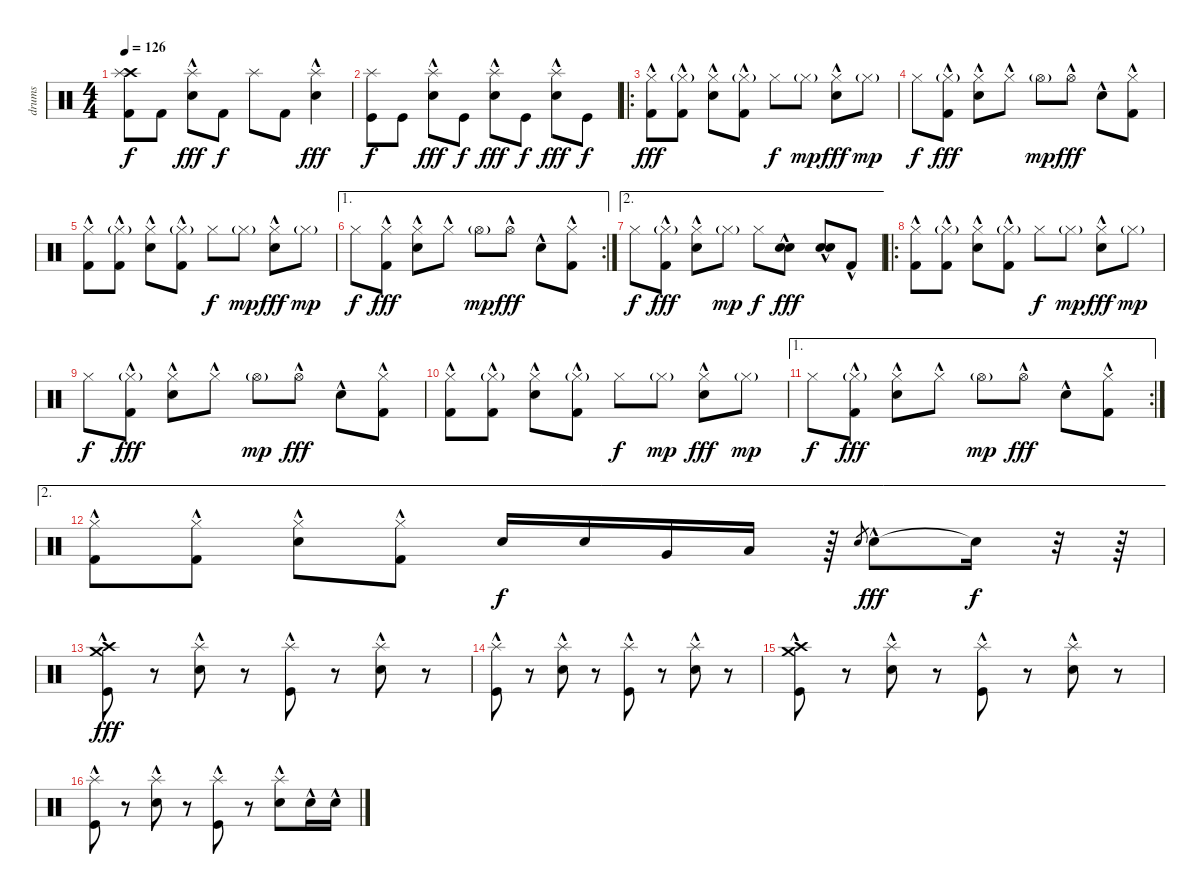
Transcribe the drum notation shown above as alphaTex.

\track ("drums" "drums") {instrument percussion}
\staff {score}
\articulation defaults
\ts (4 4)
\tempo 126
\clef neutral
\ks c
("Crash high (hit)" "Splash (hit)" "Kick (hit) 2").8{dy f} "Kick (hit) 2".8 ("Electric Snare (hit)"{hac} "Splash (hit)").8{dy fff} "Kick (hit) 2".8{dy f} "Splash (hit)".8 "Kick (hit) 2".8 ("Electric Snare (hit)"{hac} "Splash (hit)").4{dy fff} |
("Splash (hit)" "Kick (hit)").8{dy f} "Kick (hit)".8 ("Electric Snare (hit)"{hac} "Splash (hit)").8{dy fff} "Kick (hit)".8{dy f} ("Electric Snare (hit)"{hac} "Splash (hit)").8{dy fff} "Kick (hit)".8{dy f} ("Electric Snare (hit)"{hac} "Splash (hit)").8{dy fff} "Kick (hit)".8{dy f} |
\ro
("Hi-Hat (closed)" "Kick (hit) 2"{hac}).8{dy fff} ("Hi-Hat (closed)"{g} "Kick (hit) 2"{hac}).8 ("Hi-Hat (closed)" "Electric Snare (hit)"{hac}).8 ("Hi-Hat (closed)"{g} "Kick (hit) 2"{hac}).8 "Hi-Hat (closed)".8{dy f} "Hi-Hat (closed)"{g}.8{dy mp} ("Hi-Hat (closed)" "Electric Snare (hit)"{hac}).8{dy fff} "Hi-Hat (closed)"{g}.8{dy mp} |
"Hi-Hat (closed)".8{dy f} ("Hi-Hat (closed)"{g} "Kick (hit) 2"{hac}).8{dy fff} ("Hi-Hat (closed)" "Electric Snare (hit)"{hac}).8 "Hi-Hat (closed)"{hac}.8 "Hi-Hat (open)"{g}.8{dy mp} "Hi-Hat (open)"{hac}.8{dy fff} "Electric Snare (hit)"{hac}.8 ("Hi-Hat (closed)" "Kick (hit) 2"{hac}).8 |
("Hi-Hat (closed)" "Kick (hit) 2"{hac}).8 ("Hi-Hat (closed)"{g} "Kick (hit) 2"{hac}).8 ("Hi-Hat (closed)" "Electric Snare (hit)"{hac}).8 ("Hi-Hat (closed)"{g} "Kick (hit) 2"{hac}).8 "Hi-Hat (closed)".8{dy f} "Hi-Hat (closed)"{g}.8{dy mp} ("Hi-Hat (closed)" "Electric Snare (hit)"{hac}).8{dy fff} "Hi-Hat (closed)"{g}.8{dy mp} |
\ae 1
\rc 2 "Hi-Hat (closed)".8{dy f}
("Hi-Hat (closed)" "Kick (hit) 2"{hac}).8{dy fff} ("Hi-Hat (closed)" "Electric Snare (hit)"{hac}).8 "Hi-Hat (closed)"{hac}.8 "Hi-Hat (open)"{g}.8{dy mp} "Hi-Hat (open)"{hac}.8{dy fff} "Electric Snare (hit)"{hac}.8 ("Hi-Hat (closed)" "Kick (hit) 2"{hac}).8 |
\ae 2 "Hi-Hat (closed)".8{dy f}
("Hi-Hat (closed)"{g} "Kick (hit) 2"{hac}).8{dy fff} ("Hi-Hat (closed)" "Electric Snare (hit)"{hac}).8 "Hi-Hat (closed)"{g}.8{dy mp} "Hi-Hat (closed)".8{dy f} ("Electric Snare (hit)"{hac} "Electric Snare (hit)"{hac}).8{dy fff} ("Electric Snare (hit)"{hac} "Electric Snare (hit)"{hac}).8 "Kick (hit) 2"{hac}.8 |
\ro
("Hi-Hat (closed)" "Kick (hit) 2"{hac}).8 ("Hi-Hat (closed)"{g} "Kick (hit) 2"{hac}).8 ("Hi-Hat (closed)" "Electric Snare (hit)"{hac}).8 ("Hi-Hat (closed)"{g} "Kick (hit) 2"{hac}).8 "Hi-Hat (closed)".8{dy f} "Hi-Hat (closed)"{g}.8{dy mp} ("Hi-Hat (closed)" "Electric Snare (hit)"{hac}).8{dy fff} "Hi-Hat (closed)"{g}.8{dy mp} |
"Hi-Hat (closed)".8{dy f} ("Hi-Hat (closed)"{g} "Kick (hit) 2"{hac}).8{dy fff} ("Hi-Hat (closed)" "Electric Snare (hit)"{hac}).8 "Hi-Hat (closed)"{hac}.8 "Hi-Hat (open)"{g}.8{dy mp} "Hi-Hat (open)"{hac}.8{dy fff} "Electric Snare (hit)"{hac}.8 ("Hi-Hat (closed)" "Kick (hit) 2"{hac}).8 |
("Hi-Hat (closed)" "Kick (hit) 2"{hac}).8 ("Hi-Hat (closed)"{g} "Kick (hit) 2"{hac}).8 ("Hi-Hat (closed)" "Electric Snare (hit)"{hac}).8 ("Hi-Hat (closed)"{g} "Kick (hit) 2"{hac}).8 "Hi-Hat (closed)".8{dy f} "Hi-Hat (closed)"{g}.8{dy mp} ("Hi-Hat (closed)" "Electric Snare (hit)"{hac}).8{dy fff} "Hi-Hat (closed)"{g}.8{dy mp} |
\ae 1
\rc 2 "Hi-Hat (closed)".8{dy f}
("Hi-Hat (closed)"{g} "Kick (hit) 2"{hac}).8{dy fff} ("Hi-Hat (closed)" "Electric Snare (hit)"{hac}).8 "Hi-Hat (closed)"{hac}.8 "Hi-Hat (open)"{g}.8{dy mp} "Hi-Hat (open)"{hac}.8{dy fff} "Electric Snare (hit)"{hac}.8 ("Hi-Hat (closed)" "Kick (hit) 2"{hac}).8 |
\ae 2
("Hi-Hat (closed)" "Kick (hit) 2"{hac}).8 ("Hi-Hat (closed)" "Kick (hit) 2"{hac}).8 ("Hi-Hat (closed)" "Electric Snare (hit)"{hac}).8 ("Hi-Hat (closed)" "Kick (hit) 2"{hac}).8 "Electric Snare (hit)".16{dy f} "Electric Snare (hit)".16 "Very Low Tom (hit)".16 "Low Floor Tom (hit)".16 r.64 "Electric Snare (hit)".8{gr} "Electric Snare (hit)"{hac}.8{dy fff} "Snare (hit)"{t}.16{dy f} r.32 r.64 |
("Crash high (hit)"{hac} "Crash medium (hit)"{hac} "Kick (hit)"{hac}).8{dy fff} r.8 ("Splash (hit)" "Electric Snare (hit)"{hac}).8 r.8 ("Splash (hit)" "Kick (hit)"{hac}).8 r.8 ("Splash (hit)" "Electric Snare (hit)"{hac}).8 r.8 |
("Splash (hit)" "Kick (hit)"{hac}).8 r.8 ("Splash (hit)" "Electric Snare (hit)"{hac}).8 r.8 ("Splash (hit)" "Kick (hit)"{hac}).8 r.8 ("Splash (hit)" "Electric Snare (hit)"{hac}).8 r.8 |
("Crash high (hit)"{hac} "Crash medium (hit)"{hac} "Kick (hit)"{hac}).8 r.8 ("Splash (hit)" "Electric Snare (hit)"{hac}).8 r.8 ("Splash (hit)" "Kick (hit)"{hac}).8 r.8 ("Splash (hit)" "Electric Snare (hit)"{hac}).8 r.8 |
("Splash (hit)" "Kick (hit)"{hac}).8 r.8 ("Splash (hit)" "Electric Snare (hit)"{hac}).8 r.8 ("Splash (hit)" "Kick (hit)"{hac}).8 r.8 ("Splash (hit)" "Electric Snare (hit)"{hac}).8 "Electric Snare (hit)"{hac}.16 "Electric Snare (hit)"{hac}.16
